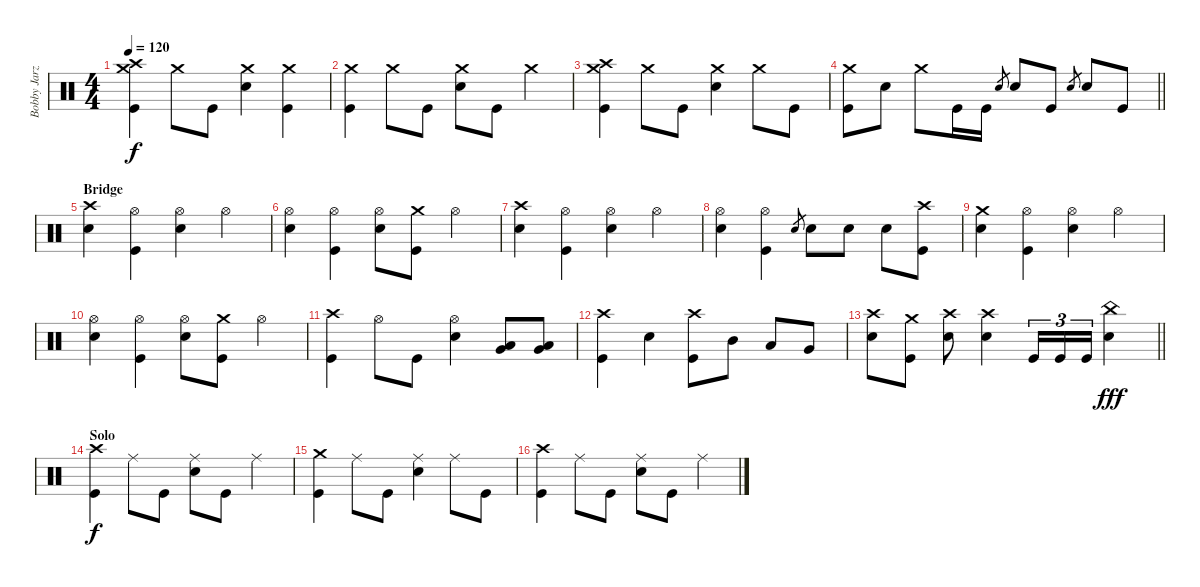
\track ("Bobby Jarzombek" "Bobby Jarz") {instrument percussion}
\staff {score}
\articulation defaults
\ts (4 4)
\tempo 120
\clef neutral
\ks c
("Crash high (hit)" "Crash medium (hit)" "Kick (hit)").4{dy f} "Crash medium (hit)".8 "Kick (hit)".8 ("Crash medium (hit)" "Electric Snare (hit)").4 ("Crash medium (hit)" "Kick (hit)").4 |
("Crash medium (hit)" "Kick (hit)").4 "Crash medium (hit)".8 "Kick (hit)".8 ("Crash medium (hit)" "Electric Snare (hit)").8 "Kick (hit)".8 "Crash medium (hit)".4 |
("Crash high (hit)" "Crash medium (hit)" "Kick (hit)").4 "Crash medium (hit)".8 "Kick (hit)".8 ("Crash medium (hit)" "Electric Snare (hit)").4 "Crash medium (hit)".8 "Kick (hit)".8 |
\barLineRight lightlight
("Crash medium (hit)" "Kick (hit)").8 "Electric Snare (hit)".8 "Crash medium (hit)".8 "Kick (hit)".16 "Kick (hit)".16 "Electric Snare (hit)".8{gr} "Electric Snare (hit)".8 "Kick (hit)".8 "Electric Snare (hit)".8{gr} "Electric Snare (hit)".8 "Kick (hit)".8 |
\section ("" "Bridge")
("Crash high (hit)" "Electric Snare (hit)").4 ("Hi-Hat (open)" "Kick (hit)").4 ("Hi-Hat (open)" "Electric Snare (hit)").4 "Hi-Hat (open)".4 |
("Hi-Hat (open)" "Electric Snare (hit)").4 ("Hi-Hat (open)" "Kick (hit)").4 ("Hi-Hat (open)" "Electric Snare (hit)").8 ("Crash medium (hit)" "Kick (hit)").8 "Hi-Hat (open)".4 |
("Crash high (hit)" "Electric Snare (hit)").4 ("Hi-Hat (open)" "Kick (hit)").4 ("Hi-Hat (open)" "Electric Snare (hit)").4 "Hi-Hat (open)".4 |
("Hi-Hat (open)" "Electric Snare (hit)").4 ("Hi-Hat (open)" "Kick (hit)").4 "Electric Snare (hit)".8{gr} "Electric Snare (hit)".8 "Electric Snare (hit)".8 "Electric Snare (hit)".8 ("Crash high (hit)" "Kick (hit)").8 |
("Crash medium (hit)" "Electric Snare (hit)").4 ("Hi-Hat (open)" "Kick (hit)").4 ("Hi-Hat (open)" "Electric Snare (hit)").4 "Hi-Hat (open)".4 |
("Hi-Hat (open)" "Electric Snare (hit)").4 ("Hi-Hat (open)" "Kick (hit)").4 ("Hi-Hat (open)" "Electric Snare (hit)").8 ("Crash medium (hit)" "Kick (hit)").8 "Hi-Hat (open)".4 |
("Crash high (hit)" "Kick (hit)").4 "Hi-Hat (open)".8 "Kick (hit)".8 ("Hi-Hat (open)" "Electric Snare (hit)").4 ("Very Low Tom (hit)" "Low Tom (hit)").8 ("Very Low Tom (hit)" "Low Tom (hit)").8 |
("Crash high (hit)" "Kick (hit)").4 "Electric Snare (hit)".4 ("Crash high (hit)" "Kick (hit)").8 "Mid Tom (hit)".8 "Low Tom (hit)".8 "Very Low Tom (hit)".8 |
\barLineRight lightlight
("Crash high (hit)" "Electric Snare (hit)").8 ("Crash medium (hit)" "Kick (hit)").8 ("Crash high (hit)" "Electric Snare (hit)").8 ("Crash high (hit)" "Electric Snare (hit)").4 "Kick (hit)".16{tu (3 2)} "Kick (hit)".16{tu (3 2)} "Kick (hit)".16{tu (3 2)} ("China (hit)" "Electric Snare (hit)").4{dy fff} |
\section ("" "Solo")
("Crash high (hit)" "Kick (hit)").4{dy f} "Ride (middle)".8 "Kick (hit)".8 ("Ride (middle)" "Electric Snare (hit)").8 "Kick (hit)".8 "Ride (middle)".4 |
("Crash medium (hit)" "Kick (hit)").4 "Ride (middle)".8 "Kick (hit)".8 ("Ride (middle)" "Electric Snare (hit)").4 "Ride (middle)".8 "Kick (hit)".8 |
("Crash high (hit)" "Kick (hit)").4 "Ride (middle)".8 "Kick (hit)".8 ("Ride (middle)" "Electric Snare (hit)").8 "Kick (hit)".8 "Ride (middle)".4
